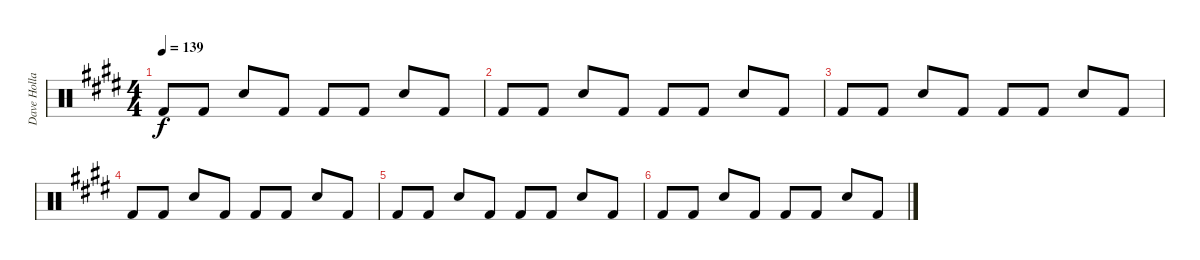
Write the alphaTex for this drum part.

\track ("Dave Holland" "Dave Holla") {instrument percussion}
\staff {score}
\articulation defaults
\ts (4 4)
\tempo 139
\clef neutral
\ks c#minor "Kick (hit) 2".8{dy f} "Kick (hit) 2".8 "Snare (hit) 2".8 "Kick (hit) 2".8 "Kick (hit) 2".8 "Kick (hit) 2".8 "Snare (hit) 2".8 "Kick (hit) 2".8
|
"Kick (hit) 2".8 "Kick (hit) 2".8 "Snare (hit) 2".8 "Kick (hit) 2".8 "Kick (hit) 2".8 "Kick (hit) 2".8 "Snare (hit) 2".8 "Kick (hit) 2".8 |
"Kick (hit) 2".8 "Kick (hit) 2".8 "Snare (hit) 2".8 "Kick (hit) 2".8 "Kick (hit) 2".8 "Kick (hit) 2".8 "Snare (hit) 2".8 "Kick (hit) 2".8 |
"Kick (hit) 2".8 "Kick (hit) 2".8 "Snare (hit) 2".8 "Kick (hit) 2".8 "Kick (hit) 2".8 "Kick (hit) 2".8 "Snare (hit) 2".8 "Kick (hit) 2".8 |
"Kick (hit) 2".8 "Kick (hit) 2".8 "Snare (hit) 2".8 "Kick (hit) 2".8 "Kick (hit) 2".8 "Kick (hit) 2".8 "Snare (hit) 2".8 "Kick (hit) 2".8 |
"Kick (hit) 2".8 "Kick (hit) 2".8 "Snare (hit) 2".8 "Kick (hit) 2".8 "Kick (hit) 2".8 "Kick (hit) 2".8 "Snare (hit) 2".8 "Kick (hit) 2".8
